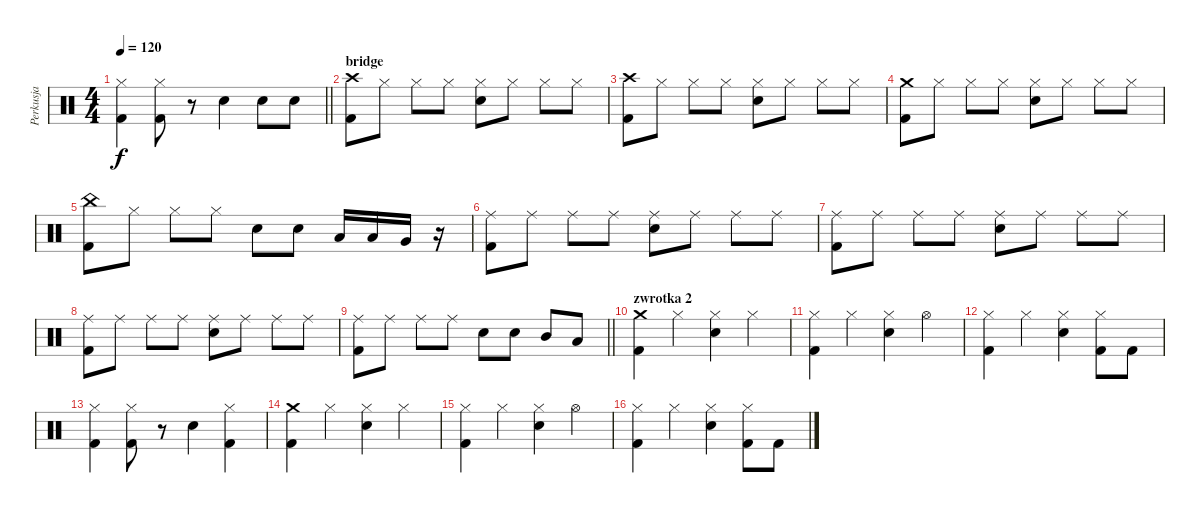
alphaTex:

\track ("Perkusja" "Perkusja") {instrument percussion}
\staff {score}
\articulation defaults
\ts (4 4)
\tempo 120
\clef neutral
\barLineRight lightlight
\ks c
("Hi-Hat (closed)" "Kick (hit) 2").4{dy f} ("Hi-Hat (closed)" "Kick (hit) 2").8 r.8 "Snare (hit) 2".4 "Snare (hit) 2".8 "Snare (hit) 2".8 |
\section ("" "bridge")
("Crash high (hit)" "Kick (hit) 2").8 "Hi-Hat (closed)".8 "Hi-Hat (closed)".8 "Hi-Hat (closed)".8 ("Hi-Hat (closed)" "Snare (hit) 2").8 "Hi-Hat (closed)".8 "Hi-Hat (closed)".8 "Hi-Hat (closed)".8 |
("Crash high (hit)" "Kick (hit) 2").8 "Hi-Hat (closed)".8 "Hi-Hat (closed)".8 "Hi-Hat (closed)".8 ("Hi-Hat (closed)" "Snare (hit) 2").8 "Hi-Hat (closed)".8 "Hi-Hat (closed)".8 "Hi-Hat (closed)".8 |
("Crash medium (hit)" "Kick (hit) 2").8 "Hi-Hat (closed)".8 "Hi-Hat (closed)".8 "Hi-Hat (closed)".8 ("Hi-Hat (closed)" "Snare (hit) 2").8 "Hi-Hat (closed)".8 "Hi-Hat (closed)".8 "Hi-Hat (closed)".8 |
("China (hit)" "Kick (hit) 2").8 "Hi-Hat (closed)".8 "Hi-Hat (closed)".8 "Hi-Hat (closed)".8 "Snare (hit) 2".8 "Snare (hit) 2".8 "Low Tom (hit)".16 "Low Tom (hit)".16 "Very Low Tom (hit)".16 r.16 |
("Ride (middle)" "Kick (hit) 2").8 "Ride (middle)".8 "Ride (middle)".8 "Ride (middle)".8 ("Ride (middle)" "Snare (hit) 2").8 "Ride (middle)".8 "Ride (middle)".8 "Ride (middle)".8 |
("Ride (middle)" "Kick (hit) 2").8 "Ride (middle)".8 "Ride (middle)".8 "Ride (middle)".8 ("Ride (middle)" "Snare (hit) 2").8 "Ride (middle)".8 "Ride (middle)".8 "Ride (middle)".8 |
("Ride (middle)" "Kick (hit) 2").8 "Ride (middle)".8 "Ride (middle)".8 "Ride (middle)".8 ("Ride (middle)" "Snare (hit) 2").8 "Ride (middle)".8 "Ride (middle)".8 "Ride (middle)".8 |
\barLineRight lightlight
("Ride (middle)" "Kick (hit) 2").8 "Ride (middle)".8 "Ride (middle)".8 "Ride (middle)".8 "Snare (hit) 2".8 "Snare (hit) 2".8 "Mid Tom (hit)".8 "Low Tom (hit)".8 |
\section ("" "zwrotka 2")
("Crash medium (hit)" "Kick (hit) 2").4 "Hi-Hat (closed)".4 ("Hi-Hat (closed)" "Snare (hit) 2").4 "Hi-Hat (closed)".4 |
("Hi-Hat (closed)" "Kick (hit) 2").4 "Hi-Hat (closed)".4 ("Hi-Hat (closed)" "Snare (hit) 2").4 "Hi-Hat (open)".4 |
("Hi-Hat (closed)" "Kick (hit) 2").4 "Hi-Hat (closed)".4 ("Hi-Hat (closed)" "Snare (hit) 2").4 ("Hi-Hat (closed)" "Kick (hit) 2").8 "Kick (hit) 2".8 |
("Hi-Hat (closed)" "Kick (hit) 2").4 ("Hi-Hat (closed)" "Kick (hit) 2").8 r.8 "Snare (hit) 2".4 ("Hi-Hat (closed)" "Kick (hit) 2").4 |
("Crash medium (hit)" "Kick (hit) 2").4 "Hi-Hat (closed)".4 ("Hi-Hat (closed)" "Snare (hit) 2").4 "Hi-Hat (closed)".4 |
("Hi-Hat (closed)" "Kick (hit) 2").4 "Hi-Hat (closed)".4 ("Hi-Hat (closed)" "Snare (hit) 2").4 "Hi-Hat (open)".4 |
("Hi-Hat (closed)" "Kick (hit) 2").4 "Hi-Hat (closed)".4 ("Hi-Hat (closed)" "Snare (hit) 2").4 ("Hi-Hat (closed)" "Kick (hit) 2").8 "Kick (hit) 2".8
